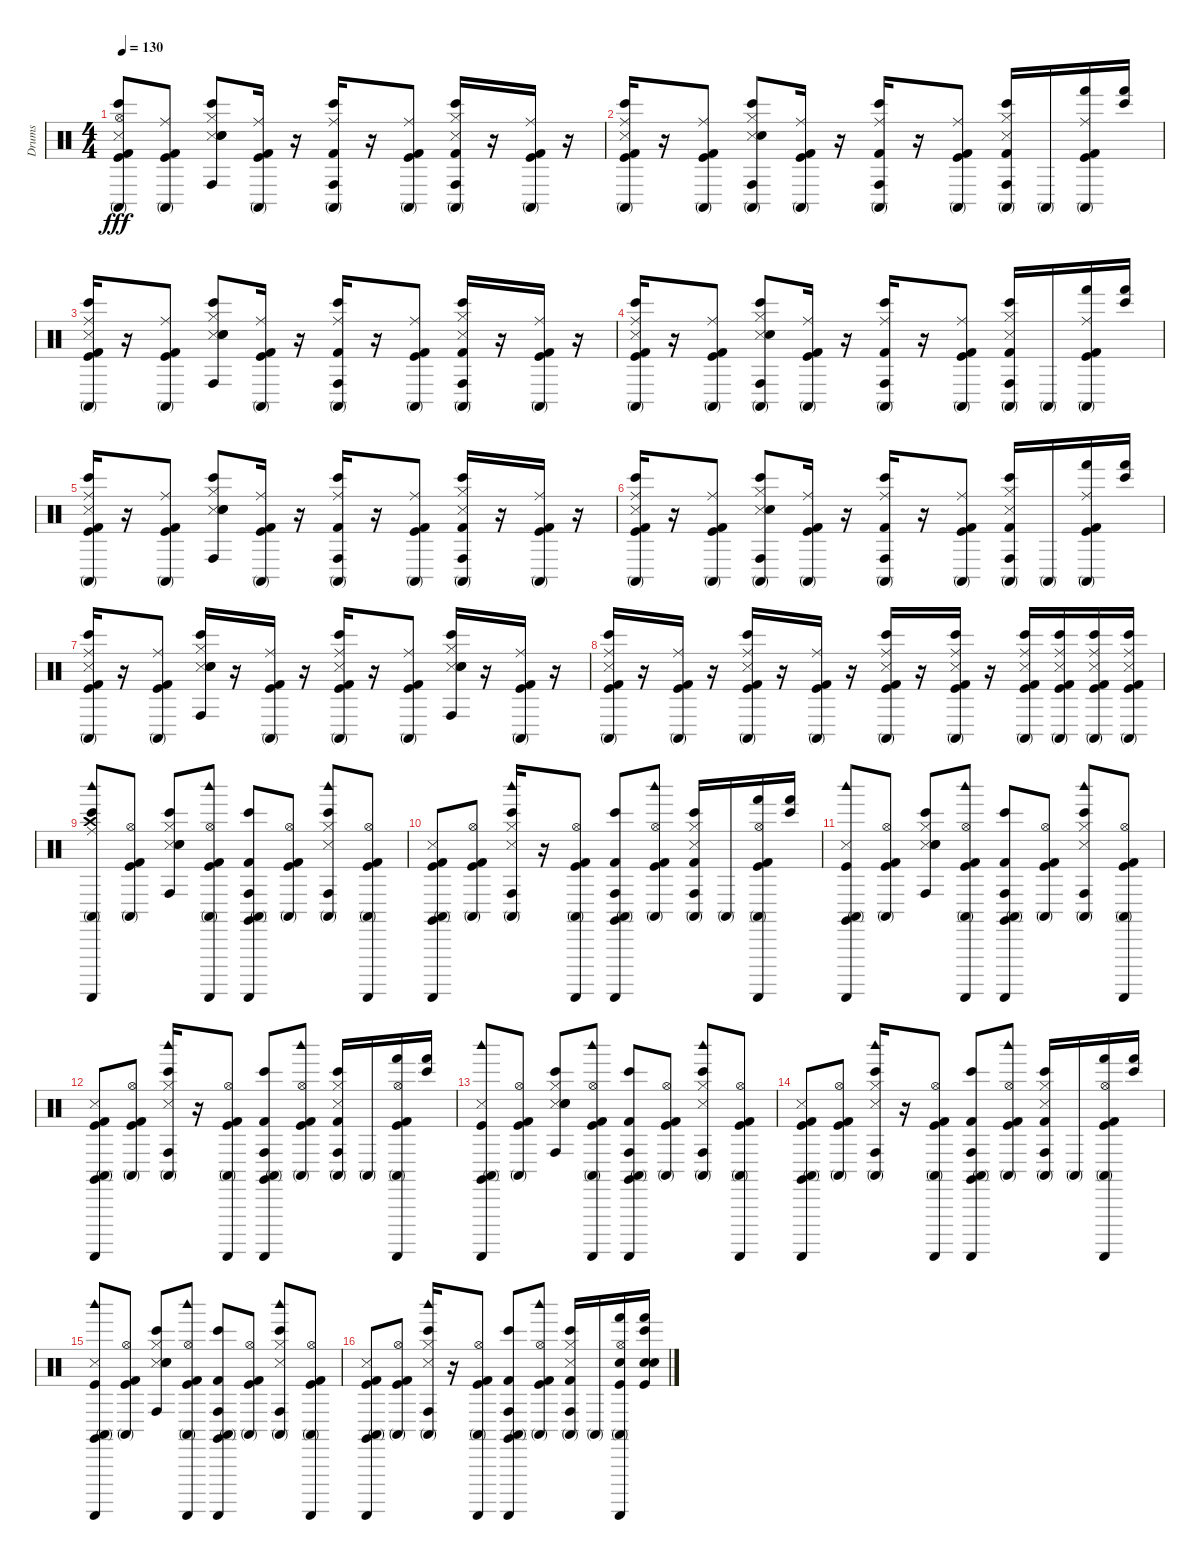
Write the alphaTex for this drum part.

\track ("Drums" "Drums") {instrument percussion}
\staff {score}
\articulation defaults
\ts (4 4)
\tempo 130
\clef neutral
\ks c
("Conga high (mute)" "Snare (side stick) 3" "Kick (hit)" "Kick (hit) 2" "Hi-Hat (open)" "Bongo High (hit)").8{dy fff} ("Conga high (mute)" "Kick (hit)" "Kick (hit) 2" "Ride (middle)").8 ("Conga high (hit)" "Bongo High (hit)" "Snare (side stick) 3" "Hi-Hat (closed)" "Electric Snare (hit)" "Snare (hit) 2").8 ("Conga high (mute)" "Kick (hit) 2" "Kick (hit)" "Ride (middle)").16 r.16 ("Conga high (mute)" "Conga high (hit)" "Kick (hit) 2" "Bongo High (hit)" "Ride (middle)").16 r.16 ("Conga high (mute)" "Kick (hit) 2" "Kick (hit)" "Ride (middle)").8 ("Conga high (mute)" "Conga high (hit)" "Bongo High (hit)" "Snare (side stick) 3" "Hi-Hat (closed)" "Kick (hit) 2").16 r.16 ("Conga high (mute)" "Kick (hit) 2" "Kick (hit)" "Ride (middle)").16 r.16 |
("Conga high (mute)" "Snare (side stick) 3" "Kick (hit)" "Kick (hit) 2" "Bongo High (hit)" "Ride (middle)").16 r.16 ("Conga high (mute)" "Kick (hit)" "Kick (hit) 2" "Ride (middle)").8 ("Conga high (mute)" "Conga high (hit)" "Bongo High (hit)" "Snare (side stick) 3" "Hi-Hat (closed)" "Electric Snare (hit)").8 ("Conga high (mute)" "Kick (hit) 2" "Kick (hit)" "Ride (middle)").16 r.16 ("Conga high (mute)" "Conga high (hit)" "Kick (hit) 2" "Bongo High (hit)" "Ride (middle)").16 r.16 ("Conga high (mute)" "Kick (hit) 2" "Kick (hit)" "Ride (middle)").8 ("Conga high (mute)" "Conga high (hit)" "Bongo High (hit)" "Snare (side stick) 3" "Hi-Hat (closed)" "Kick (hit) 2").16 "Conga high (mute)".16 ("Hand (hit)" "Conga high (mute)" "Kick (hit) 2" "Kick (hit)" "Ride (middle)").16 ("Bongo High (hit)" "Hand (hit)").16 |
("Conga high (mute)" "Snare (side stick) 3" "Kick (hit)" "Kick (hit) 2" "Bongo High (hit)" "Ride (middle)").16 r.16 ("Conga high (mute)" "Kick (hit)" "Kick (hit) 2" "Ride (middle)").8 ("Conga high (hit)" "Bongo High (hit)" "Snare (side stick) 3" "Hi-Hat (closed)" "Electric Snare (hit)" "Snare (hit) 2").8 ("Conga high (mute)" "Kick (hit) 2" "Kick (hit)" "Ride (middle)").16 r.16 ("Conga high (mute)" "Conga high (hit)" "Kick (hit) 2" "Bongo High (hit)" "Ride (middle)").16 r.16 ("Conga high (mute)" "Kick (hit) 2" "Kick (hit)" "Ride (middle)").8 ("Conga high (mute)" "Conga high (hit)" "Bongo High (hit)" "Snare (side stick) 3" "Hi-Hat (closed)" "Kick (hit) 2").16 r.16 ("Conga high (mute)" "Kick (hit) 2" "Kick (hit)" "Ride (middle)").16 r.16 |
("Conga high (mute)" "Snare (side stick) 3" "Kick (hit)" "Kick (hit) 2" "Bongo High (hit)" "Ride (middle)").16 r.16 ("Conga high (mute)" "Kick (hit)" "Kick (hit) 2" "Ride (middle)").8 ("Conga high (mute)" "Conga high (hit)" "Bongo High (hit)" "Snare (side stick) 3" "Hi-Hat (closed)" "Electric Snare (hit)").8 ("Conga high (mute)" "Kick (hit) 2" "Kick (hit)" "Ride (middle)").16 r.16 ("Conga high (mute)" "Conga high (hit)" "Kick (hit) 2" "Bongo High (hit)" "Ride (middle)").16 r.16 ("Conga high (mute)" "Kick (hit) 2" "Kick (hit)" "Ride (middle)").8 ("Conga high (mute)" "Conga high (hit)" "Bongo High (hit)" "Snare (side stick) 3" "Hi-Hat (closed)" "Kick (hit) 2").16 "Conga high (mute)".16 ("Hand (hit)" "Conga high (mute)" "Kick (hit) 2" "Kick (hit)" "Ride (middle)").16 ("Bongo High (hit)" "Hand (hit)").16 |
("Conga high (mute)" "Snare (side stick) 3" "Kick (hit)" "Kick (hit) 2" "Bongo High (hit)" "Ride (middle)").16 r.16 ("Conga high (mute)" "Kick (hit)" "Kick (hit) 2" "Ride (middle)").8 ("Conga high (hit)" "Bongo High (hit)" "Snare (side stick) 3" "Hi-Hat (closed)" "Electric Snare (hit)" "Snare (hit) 2").8 ("Conga high (mute)" "Kick (hit) 2" "Kick (hit)" "Ride (middle)").16 r.16 ("Conga high (mute)" "Conga high (hit)" "Kick (hit) 2" "Bongo High (hit)" "Ride (middle)").16 r.16 ("Conga high (mute)" "Kick (hit) 2" "Kick (hit)" "Ride (middle)").8 ("Conga high (mute)" "Conga high (hit)" "Bongo High (hit)" "Snare (side stick) 3" "Hi-Hat (closed)" "Kick (hit) 2").16 r.16 ("Conga high (mute)" "Kick (hit) 2" "Kick (hit)" "Ride (middle)").16 r.16 |
("Conga high (mute)" "Snare (side stick) 3" "Kick (hit)" "Kick (hit) 2" "Bongo High (hit)" "Ride (middle)").16 r.16 ("Conga high (mute)" "Kick (hit)" "Kick (hit) 2" "Ride (middle)").8 ("Conga high (mute)" "Conga high (hit)" "Bongo High (hit)" "Snare (side stick) 3" "Hi-Hat (closed)" "Electric Snare (hit)").8 ("Conga high (mute)" "Kick (hit) 2" "Kick (hit)" "Ride (middle)").16 r.16 ("Conga high (mute)" "Conga high (hit)" "Kick (hit) 2" "Bongo High (hit)" "Ride (middle)").16 r.16 ("Conga high (mute)" "Kick (hit) 2" "Kick (hit)" "Ride (middle)").8 ("Conga high (mute)" "Conga high (hit)" "Bongo High (hit)" "Snare (side stick) 3" "Hi-Hat (closed)" "Kick (hit) 2").16 "Conga high (mute)".16 ("Hand (hit)" "Conga high (mute)" "Kick (hit) 2" "Kick (hit)" "Ride (middle)").16 ("Bongo High (hit)" "Hand (hit)").16 |
("Conga high (mute)" "Snare (side stick) 3" "Kick (hit)" "Kick (hit) 2" "Bongo High (hit)" "Ride (middle)").16 r.16 ("Conga high (mute)" "Kick (hit)" "Kick (hit) 2" "Ride (middle)").8 ("Conga high (hit)" "Bongo High (hit)" "Snare (side stick) 3" "Hi-Hat (closed)" "Electric Snare (hit)" "Snare (hit) 2").16 r.16 ("Conga high (mute)" "Kick (hit) 2" "Kick (hit)" "Ride (middle)").16 r.16 ("Ride (middle)" "Bongo High (hit)" "Kick (hit) 2" "Kick (hit)" "Snare (side stick) 3" "Conga high (mute)").16 r.16 ("Conga high (mute)" "Kick (hit)" "Kick (hit) 2" "Ride (middle)").8 ("Conga high (hit)" "Bongo High (hit)" "Snare (side stick) 3" "Hi-Hat (closed)" "Electric Snare (hit)" "Snare (hit) 2").16 r.16 ("Conga high (mute)" "Kick (hit) 2" "Kick (hit)" "Ride (middle)").16 r.16 |
("Ride (middle)" "Bongo High (hit)" "Kick (hit) 2" "Kick (hit)" "Snare (side stick) 3" "Conga high (mute)").16 r.16 ("Conga high (mute)" "Kick (hit)" "Kick (hit) 2" "Ride (middle)").16 r.16 ("Conga high (mute)" "Snare (side stick) 3" "Kick (hit)" "Kick (hit) 2" "Bongo High (hit)" "Ride (middle)").16 r.16 ("Conga high (mute)" "Kick (hit)" "Kick (hit) 2" "Ride (middle)").16 r.16 ("Conga high (mute)" "Snare (side stick) 3" "Kick (hit)" "Kick (hit) 2" "Bongo High (hit)" "Ride (middle)").16 r.16 ("Ride (middle)" "Bongo High (hit)" "Kick (hit) 2" "Kick (hit)" "Snare (side stick) 3" "Conga high (mute)").16 r.16 ("Ride (middle)" "Bongo High (hit)" "Kick (hit) 2" "Kick (hit)" "Snare (side stick) 3" "Conga high (mute)").16 ("Conga high (mute)" "Snare (side stick) 3" "Kick (hit)" "Kick (hit) 2" "Bongo High (hit)" "Ride (middle)").16 ("Conga high (mute)" "Snare (side stick) 3" "Kick (hit)" "Kick (hit) 2" "Bongo High (hit)" "Ride (middle)").16 ("Conga high (mute)" "Snare (side stick) 3" "Kick (hit)" "Kick (hit) 2" "Bongo High (hit)" "Ride (middle)").16 |
("Guiro (scrap-return)" "Woodblock high (hit)" "Bongo High (hit)" "Conga high (mute)" "Crash high (hit)" "Ride (middle)").8 ("Conga high (mute)" "Hi-Hat (open)" "Kick (hit)" "Kick (hit) 2").8 ("Bongo High (hit)" "Conga high (hit)" "Snare (side stick) 3" "Hi-Hat (closed)" "Electric Snare (hit)" "Snare (hit) 2").8 ("Kick (hit) 2" "Kick (hit)" "Guiro (scrap-return)" "Woodblock high (hit)" "Conga high (mute)" "Hi-Hat (open)").8 ("Kick (hit) 2" "Guiro (scrap-return)" "Claves (hit)" "Bongo High (hit)" "Conga high (mute)" "Conga high (hit)").8 ("Conga high (mute)" "Hi-Hat (open)" "Kick (hit) 2" "Kick (hit)").8 ("Woodblock high (hit)" "Bongo High (hit)" "Conga high (mute)" "Conga high (hit)" "Snare (side stick) 3" "Hi-Hat (closed)").8 ("Kick (hit) 2" "Kick (hit)" "Guiro (scrap-return)" "Conga high (mute)" "Hi-Hat (open)").8 |
("Guiro (scrap-return)" "Claves (hit)" "Conga high (mute)" "Snare (side stick) 3" "Kick (hit)" "Kick (hit) 2").8 ("Conga high (mute)" "Hi-Hat (open)" "Kick (hit)" "Kick (hit) 2").8 ("Woodblock high (hit)" "Conga high (mute)" "Conga high (hit)" "Bongo High (hit)" "Snare (side stick) 3" "Hi-Hat (closed)").16 r.16 ("Guiro (scrap-return)" "Conga high (mute)" "Kick (hit) 2" "Kick (hit)" "Hi-Hat (open)").8 ("Guiro (scrap-return)" "Claves (hit)" "Conga high (mute)" "Conga high (hit)" "Kick (hit) 2" "Bongo High (hit)").8 ("Woodblock high (hit)" "Conga high (mute)" "Hi-Hat (open)" "Kick (hit) 2" "Kick (hit)").8 ("Conga high (mute)" "Conga high (hit)" "Bongo High (hit)" "Snare (side stick) 3" "Hi-Hat (closed)" "Kick (hit) 2").16 "Conga high (mute)".16 ("Guiro (scrap-return)" "Hand (hit)" "Conga high (mute)" "Kick (hit) 2" "Kick (hit)" "Hi-Hat (open)").16 ("Bongo High (hit)" "Hand (hit)").16 |
("Guiro (scrap-return)" "Woodblock high (hit)" "Claves (hit)" "Conga high (mute)" "Snare (side stick) 3" "Kick (hit)").8 ("Conga high (mute)" "Hi-Hat (open)" "Kick (hit)" "Kick (hit) 2").8 ("Conga high (hit)" "Bongo High (hit)" "Snare (side stick) 3" "Hi-Hat (closed)" "Electric Snare (hit)" "Snare (hit) 2").8 ("Guiro (scrap-return)" "Woodblock high (hit)" "Conga high (mute)" "Kick (hit) 2" "Kick (hit)" "Hi-Hat (open)").8 ("Guiro (scrap-return)" "Claves (hit)" "Conga high (mute)" "Conga high (hit)" "Kick (hit) 2" "Bongo High (hit)").8 ("Conga high (mute)" "Hi-Hat (open)" "Kick (hit) 2" "Kick (hit)").8 ("Woodblock high (hit)" "Conga high (mute)" "Conga high (hit)" "Bongo High (hit)" "Snare (side stick) 3" "Hi-Hat (closed)").8 ("Guiro (scrap-return)" "Conga high (mute)" "Kick (hit) 2" "Kick (hit)" "Hi-Hat (open)").8 |
("Guiro (scrap-return)" "Claves (hit)" "Conga high (mute)" "Snare (side stick) 3" "Kick (hit)" "Kick (hit) 2").8 ("Conga high (mute)" "Hi-Hat (open)" "Kick (hit)" "Kick (hit) 2").8 ("Woodblock high (hit)" "Conga high (mute)" "Conga high (hit)" "Bongo High (hit)" "Snare (side stick) 3" "Hi-Hat (closed)").16 r.16 ("Guiro (scrap-return)" "Conga high (mute)" "Kick (hit) 2" "Kick (hit)" "Hi-Hat (open)").8 ("Guiro (scrap-return)" "Claves (hit)" "Conga high (mute)" "Conga high (hit)" "Kick (hit) 2" "Bongo High (hit)").8 ("Woodblock high (hit)" "Conga high (mute)" "Hi-Hat (open)" "Kick (hit) 2" "Kick (hit)").8 ("Conga high (mute)" "Conga high (hit)" "Bongo High (hit)" "Snare (side stick) 3" "Hi-Hat (closed)" "Kick (hit) 2").16 "Conga high (mute)".16 ("Guiro (scrap-return)" "Hand (hit)" "Conga high (mute)" "Kick (hit) 2" "Kick (hit)" "Hi-Hat (open)").16 ("Bongo High (hit)" "Hand (hit)").16 |
("Conga high (mute)" "Claves (hit)" "Woodblock high (hit)" "Guiro (scrap-return)" "Snare (side stick) 3" "Kick (hit)").8 ("Conga high (mute)" "Hi-Hat (open)" "Kick (hit)" "Kick (hit) 2").8 ("Conga high (hit)" "Bongo High (hit)" "Snare (side stick) 3" "Hi-Hat (closed)" "Electric Snare (hit)" "Snare (hit) 2").8 ("Guiro (scrap-return)" "Woodblock high (hit)" "Conga high (mute)" "Kick (hit) 2" "Kick (hit)" "Hi-Hat (open)").8 ("Guiro (scrap-return)" "Claves (hit)" "Conga high (mute)" "Conga high (hit)" "Kick (hit) 2" "Bongo High (hit)").8 ("Conga high (mute)" "Hi-Hat (open)" "Kick (hit) 2" "Kick (hit)").8 ("Woodblock high (hit)" "Conga high (mute)" "Conga high (hit)" "Bongo High (hit)" "Snare (side stick) 3" "Hi-Hat (closed)").8 ("Guiro (scrap-return)" "Conga high (mute)" "Kick (hit) 2" "Kick (hit)" "Hi-Hat (open)").8 |
("Guiro (scrap-return)" "Claves (hit)" "Conga high (mute)" "Snare (side stick) 3" "Kick (hit)" "Kick (hit) 2").8 ("Conga high (mute)" "Hi-Hat (open)" "Kick (hit)" "Kick (hit) 2").8 ("Woodblock high (hit)" "Conga high (mute)" "Conga high (hit)" "Bongo High (hit)" "Snare (side stick) 3" "Hi-Hat (closed)").16 r.16 ("Guiro (scrap-return)" "Conga high (mute)" "Kick (hit) 2" "Kick (hit)" "Hi-Hat (open)").8 ("Guiro (scrap-return)" "Claves (hit)" "Conga high (mute)" "Conga high (hit)" "Kick (hit) 2" "Bongo High (hit)").8 ("Woodblock high (hit)" "Conga high (mute)" "Hi-Hat (open)" "Kick (hit) 2" "Kick (hit)").8 ("Conga high (mute)" "Conga high (hit)" "Bongo High (hit)" "Snare (side stick) 3" "Hi-Hat (closed)" "Kick (hit) 2").16 "Conga high (mute)".16 ("Guiro (scrap-return)" "Hand (hit)" "Conga high (mute)" "Kick (hit) 2" "Kick (hit)" "Hi-Hat (open)").16 ("Bongo High (hit)" "Hand (hit)").16 |
("Guiro (scrap-return)" "Woodblock high (hit)" "Claves (hit)" "Conga high (mute)" "Snare (side stick) 3" "Kick (hit)").8 ("Conga high (mute)" "Hi-Hat (open)" "Kick (hit)" "Kick (hit) 2").8 ("Conga high (hit)" "Bongo High (hit)" "Snare (side stick) 3" "Hi-Hat (closed)" "Electric Snare (hit)" "Snare (hit) 2").8 ("Guiro (scrap-return)" "Woodblock high (hit)" "Conga high (mute)" "Kick (hit) 2" "Kick (hit)" "Hi-Hat (open)").8 ("Guiro (scrap-return)" "Claves (hit)" "Conga high (mute)" "Conga high (hit)" "Kick (hit) 2" "Bongo High (hit)").8 ("Conga high (mute)" "Hi-Hat (open)" "Kick (hit) 2" "Kick (hit)").8 ("Woodblock high (hit)" "Conga high (mute)" "Conga high (hit)" "Bongo High (hit)" "Snare (side stick) 3" "Hi-Hat (closed)").8 ("Guiro (scrap-return)" "Conga high (mute)" "Kick (hit) 2" "Kick (hit)" "Hi-Hat (open)").8 |
("Guiro (scrap-return)" "Claves (hit)" "Conga high (mute)" "Snare (side stick) 3" "Kick (hit)" "Kick (hit) 2").8 ("Conga high (mute)" "Hi-Hat (open)" "Kick (hit)" "Kick (hit) 2").8 ("Woodblock high (hit)" "Conga high (mute)" "Conga high (hit)" "Bongo High (hit)" "Snare (side stick) 3" "Hi-Hat (closed)").16 r.16 ("Guiro (scrap-return)" "Conga high (mute)" "Kick (hit) 2" "Kick (hit)" "Hi-Hat (open)").8 ("Guiro (scrap-return)" "Claves (hit)" "Conga high (mute)" "Conga high (hit)" "Kick (hit) 2" "Bongo High (hit)").8 ("Woodblock high (hit)" "Conga high (mute)" "Hi-Hat (open)" "Kick (hit) 2" "Kick (hit)").8 ("Conga high (mute)" "Conga high (hit)" "Bongo High (hit)" "Snare (side stick) 3" "Hi-Hat (closed)" "Kick (hit) 2").16 "Conga high (mute)".16 ("Guiro (scrap-return)" "Hand (hit)" "Conga high (mute)" "Kick (hit)" "Hi-Hat (open)" "Electric Snare (hit)").16 ("Bongo High (hit)" "Hand (hit)" "Electric Snare (hit)" "Snare (hit) 2" "Kick (hit)").16
